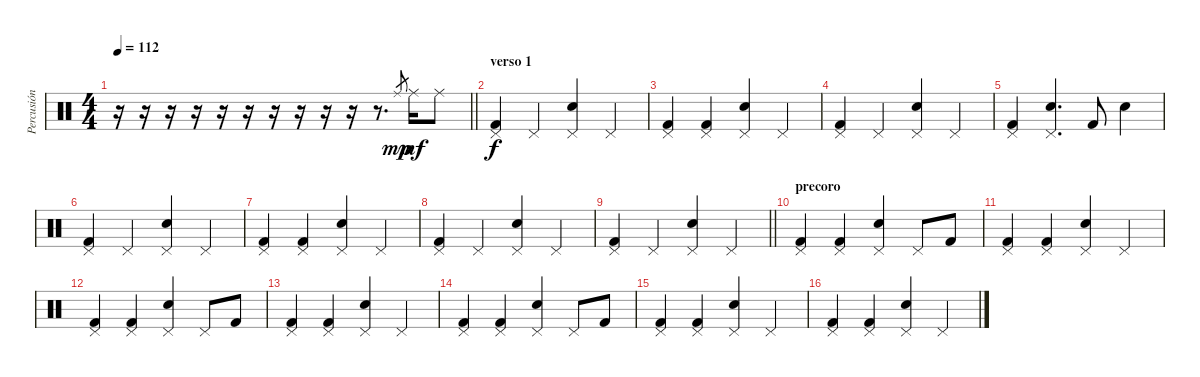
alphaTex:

\track ("Percusión" "Percusión") {instrument percussion}
\staff {score}
\articulation defaults
\ts (4 4)
\tempo 112
\clef neutral
\barLineRight lightlight
\ks c
r.16{dy mp} r.16 r.16 r.16 r.16 r.16 r.16 r.16 r.16 r.16 r.8{d} "Ride (middle)".8{gr} "Ride (middle)".16{dy mf} "Ride (middle)".8 |
\section ("" "verso 1")
("Kick (hit) 2" "Pedal Hi-Hat (hit)").4{dy f volume 10} "Pedal Hi-Hat (hit)".4 ("Electric Snare (hit)" "Pedal Hi-Hat (hit)").4 "Pedal Hi-Hat (hit)".4 |
("Kick (hit) 2" "Pedal Hi-Hat (hit)").4 ("Kick (hit) 2" "Pedal Hi-Hat (hit)").4 ("Electric Snare (hit)" "Pedal Hi-Hat (hit)").4 "Pedal Hi-Hat (hit)".4 |
("Kick (hit) 2" "Pedal Hi-Hat (hit)").4 "Pedal Hi-Hat (hit)".4 ("Electric Snare (hit)" "Pedal Hi-Hat (hit)").4 "Pedal Hi-Hat (hit)".4 |
("Kick (hit) 2" "Pedal Hi-Hat (hit)").4 ("Electric Snare (hit)" "Pedal Hi-Hat (hit)").4{d} "Kick (hit) 2".8 "Electric Snare (hit)".4 |
("Kick (hit) 2" "Pedal Hi-Hat (hit)").4 "Pedal Hi-Hat (hit)".4 ("Electric Snare (hit)" "Pedal Hi-Hat (hit)").4 "Pedal Hi-Hat (hit)".4 |
("Kick (hit) 2" "Pedal Hi-Hat (hit)").4 ("Kick (hit) 2" "Pedal Hi-Hat (hit)").4 ("Electric Snare (hit)" "Pedal Hi-Hat (hit)").4 "Pedal Hi-Hat (hit)".4 |
("Kick (hit) 2" "Pedal Hi-Hat (hit)").4 "Pedal Hi-Hat (hit)".4 ("Electric Snare (hit)" "Pedal Hi-Hat (hit)").4 "Pedal Hi-Hat (hit)".4 |
\barLineRight lightlight
("Kick (hit) 2" "Pedal Hi-Hat (hit)").4 "Pedal Hi-Hat (hit)".4 ("Electric Snare (hit)" "Pedal Hi-Hat (hit)").4 "Pedal Hi-Hat (hit)".4 |
\section ("" "precoro")
("Kick (hit) 2" "Pedal Hi-Hat (hit)").4 ("Kick (hit) 2" "Pedal Hi-Hat (hit)").4 ("Electric Snare (hit)" "Pedal Hi-Hat (hit)").4 "Pedal Hi-Hat (hit)".8 "Kick (hit) 2".8 |
("Kick (hit) 2" "Pedal Hi-Hat (hit)").4 ("Kick (hit) 2" "Pedal Hi-Hat (hit)").4 ("Electric Snare (hit)" "Pedal Hi-Hat (hit)").4 "Pedal Hi-Hat (hit)".4 |
("Kick (hit) 2" "Pedal Hi-Hat (hit)").4 ("Kick (hit) 2" "Pedal Hi-Hat (hit)").4 ("Electric Snare (hit)" "Pedal Hi-Hat (hit)").4 "Pedal Hi-Hat (hit)".8 "Kick (hit) 2".8 |
("Kick (hit) 2" "Pedal Hi-Hat (hit)").4 ("Kick (hit) 2" "Pedal Hi-Hat (hit)").4 ("Electric Snare (hit)" "Pedal Hi-Hat (hit)").4 "Pedal Hi-Hat (hit)".4 |
("Kick (hit) 2" "Pedal Hi-Hat (hit)").4 ("Kick (hit) 2" "Pedal Hi-Hat (hit)").4 ("Electric Snare (hit)" "Pedal Hi-Hat (hit)").4 "Pedal Hi-Hat (hit)".8 "Kick (hit) 2".8 |
("Kick (hit) 2" "Pedal Hi-Hat (hit)").4 ("Kick (hit) 2" "Pedal Hi-Hat (hit)").4 ("Electric Snare (hit)" "Pedal Hi-Hat (hit)").4 "Pedal Hi-Hat (hit)".4 |
("Kick (hit) 2" "Pedal Hi-Hat (hit)").4 ("Kick (hit) 2" "Pedal Hi-Hat (hit)").4 ("Electric Snare (hit)" "Pedal Hi-Hat (hit)").4 "Pedal Hi-Hat (hit)".4
